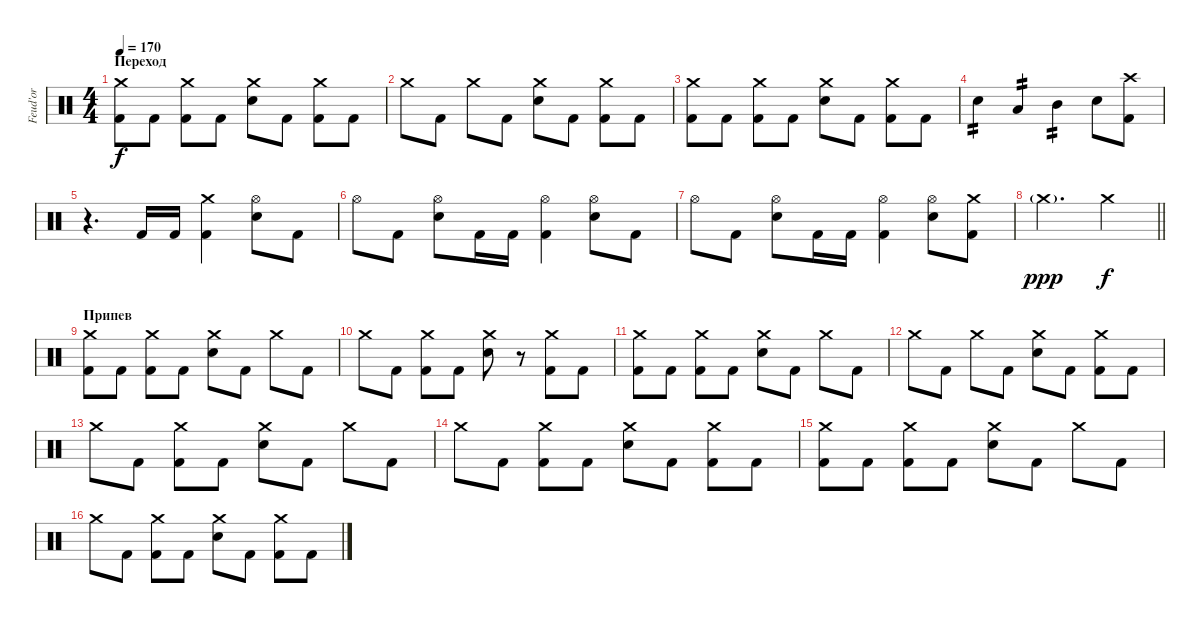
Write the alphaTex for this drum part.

\track ("Feud'or" "Feud'or") {instrument percussion}
\staff {score}
\articulation defaults
\ts (4 4)
\section ("" "Переход")
\tempo 170
\clef neutral
\ks c
("Crash medium (hit)" "Kick (hit) 2").8{dy f} "Kick (hit) 2".8 ("Crash medium (hit)" "Kick (hit) 2").8 "Kick (hit) 2".8 ("Crash medium (hit)" "Electric Snare (hit)").8 "Kick (hit) 2".8 ("Crash medium (hit)" "Kick (hit) 2").8 "Kick (hit) 2".8 |
"Crash medium (hit)".8 "Kick (hit) 2".8 "Crash medium (hit)".8 "Kick (hit) 2".8 ("Crash medium (hit)" "Electric Snare (hit)").8 "Kick (hit) 2".8 ("Crash medium (hit)" "Kick (hit) 2").8 "Kick (hit) 2".8 |
("Crash medium (hit)" "Kick (hit) 2").8 "Kick (hit) 2".8 ("Crash medium (hit)" "Kick (hit) 2").8 "Kick (hit) 2".8 ("Crash medium (hit)" "Electric Snare (hit)").8 "Kick (hit) 2".8 ("Crash medium (hit)" "Kick (hit) 2").8 "Kick (hit) 2".8 |
"Electric Snare (hit)".4{tp 2} "Low Tom (hit)".4{tp 2} "Mid Tom (hit)".4{tp 2} "Electric Snare (hit)".8 ("Crash high (hit)" "Kick (hit) 2").8 |
r.4{d} "Kick (hit) 2".16 "Kick (hit) 2".16 ("Crash medium (hit)" "Kick (hit) 2").4 ("Hi-Hat (open)" "Electric Snare (hit)").8 "Kick (hit) 2".8 |
"Hi-Hat (open)".8 "Kick (hit) 2".8 ("Hi-Hat (open)" "Electric Snare (hit)").8 "Kick (hit) 2".16 "Kick (hit) 2".16 ("Hi-Hat (open)" "Kick (hit) 2").4 ("Hi-Hat (open)" "Electric Snare (hit)").8 "Kick (hit) 2".8 |
"Hi-Hat (open)".8 "Kick (hit) 2".8 ("Hi-Hat (open)" "Electric Snare (hit)").8 "Kick (hit) 2".16 "Kick (hit) 2".16 ("Hi-Hat (open)" "Kick (hit) 2").4 ("Hi-Hat (open)" "Electric Snare (hit)").8 ("Crash medium (hit)" "Kick (hit) 2").8 |
\barLineRight lightlight "Crash medium (hit)"{g}.2{d dy ppp} "Crash medium (hit)".4{dy f}
|
\section ("" "Припев")
("Crash medium (hit)" "Kick (hit) 2").8 "Kick (hit) 2".8 ("Crash medium (hit)" "Kick (hit) 2").8 "Kick (hit) 2".8 ("Crash medium (hit)" "Electric Snare (hit)").8 "Kick (hit) 2".8 "Crash medium (hit)".8 "Kick (hit) 2".8 |
"Crash medium (hit)".8 "Kick (hit) 2".8 ("Crash medium (hit)" "Kick (hit) 2").8 "Kick (hit) 2".8 ("Crash medium (hit)" "Electric Snare (hit)").8 r.8 ("Crash medium (hit)" "Kick (hit) 2").8 "Kick (hit) 2".8 |
("Crash medium (hit)" "Kick (hit) 2").8 "Kick (hit) 2".8 ("Crash medium (hit)" "Kick (hit) 2").8 "Kick (hit) 2".8 ("Crash medium (hit)" "Electric Snare (hit)").8 "Kick (hit) 2".8 "Crash medium (hit)".8 "Kick (hit) 2".8 |
"Crash medium (hit)".8 "Kick (hit) 2".8 "Crash medium (hit)".8 "Kick (hit) 2".8 ("Crash medium (hit)" "Electric Snare (hit)").8 "Kick (hit) 2".8 ("Crash medium (hit)" "Kick (hit) 2").8 "Kick (hit) 2".8 |
"Crash medium (hit)".8 "Kick (hit) 2".8 ("Crash medium (hit)" "Kick (hit) 2").8 "Kick (hit) 2".8 ("Crash medium (hit)" "Electric Snare (hit)").8 "Kick (hit) 2".8 "Crash medium (hit)".8 "Kick (hit) 2".8 |
"Crash medium (hit)".8 "Kick (hit) 2".8 ("Crash medium (hit)" "Kick (hit) 2").8 "Kick (hit) 2".8 ("Crash medium (hit)" "Electric Snare (hit)").8 "Kick (hit) 2".8 ("Crash medium (hit)" "Kick (hit) 2").8 "Kick (hit) 2".8 |
("Crash medium (hit)" "Kick (hit) 2").8 "Kick (hit) 2".8 ("Crash medium (hit)" "Kick (hit) 2").8 "Kick (hit) 2".8 ("Crash medium (hit)" "Electric Snare (hit)").8 "Kick (hit) 2".8 "Crash medium (hit)".8 "Kick (hit) 2".8 |
"Crash medium (hit)".8 "Kick (hit) 2".8 ("Crash medium (hit)" "Kick (hit) 2").8 "Kick (hit) 2".8 ("Crash medium (hit)" "Electric Snare (hit)").8 "Kick (hit) 2".8 ("Crash medium (hit)" "Kick (hit) 2").8 "Kick (hit) 2".8
